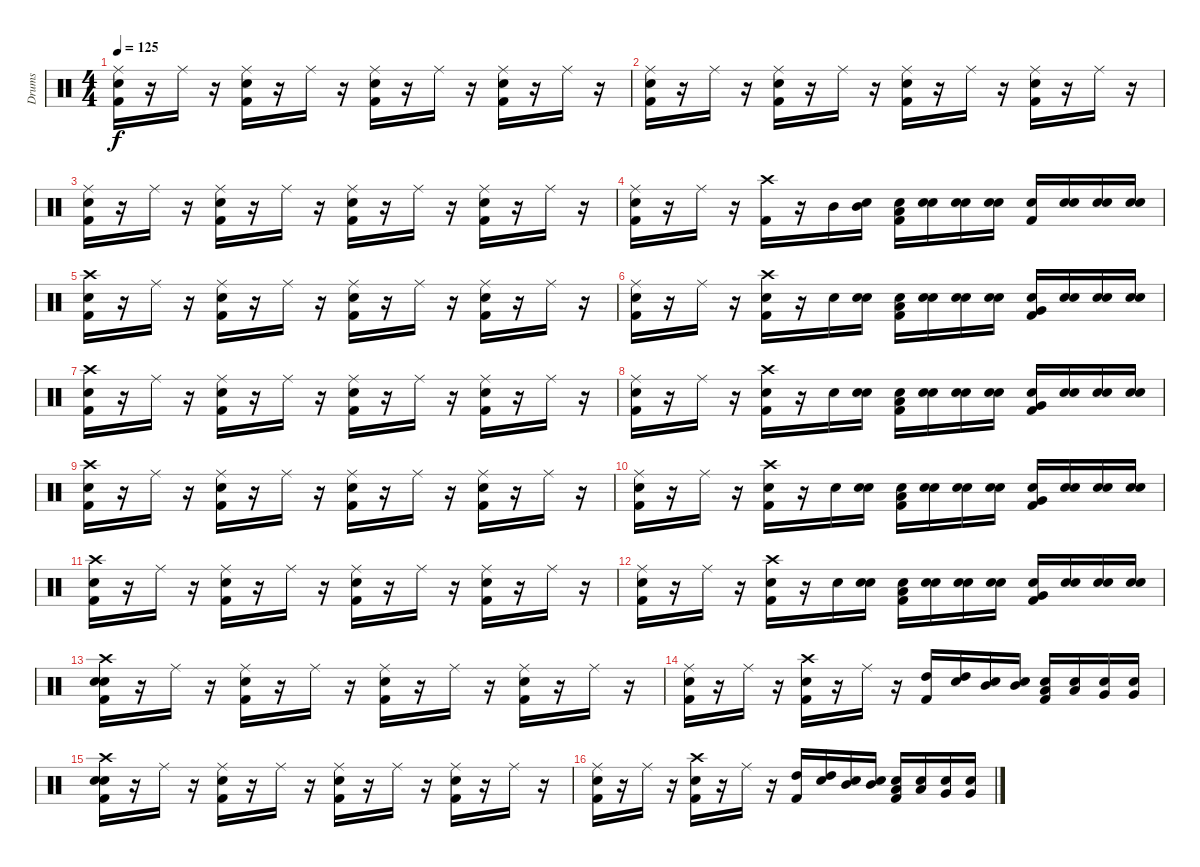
\track ("Drums" "Drums") {instrument percussion}
\staff {score}
\articulation defaults
\ts (4 4)
\tempo 125
\clef neutral
\ks c
("Ride (middle)" "Snare (hit) 2" "Kick (hit) 2").16{dy f} r.16 "Ride (middle)".16 r.16 ("Ride (middle)" "Snare (hit) 2" "Kick (hit) 2").16 r.16 "Ride (middle)".16 r.16 ("Ride (middle)" "Snare (hit) 2" "Kick (hit) 2").16 r.16 "Ride (middle)".16 r.16 ("Ride (middle)" "Snare (hit) 2" "Kick (hit) 2").16 r.16 "Ride (middle)".16 r.16 |
("Ride (middle)" "Snare (hit) 2" "Kick (hit) 2").16 r.16 "Ride (middle)".16 r.16 ("Ride (middle)" "Snare (hit) 2" "Kick (hit) 2").16 r.16 "Ride (middle)".16 r.16 ("Ride (middle)" "Snare (hit) 2" "Kick (hit) 2").16 r.16 "Ride (middle)".16 r.16 ("Ride (middle)" "Snare (hit) 2" "Kick (hit) 2").16 r.16 "Ride (middle)".16 r.16 |
("Ride (middle)" "Snare (hit) 2" "Kick (hit) 2").16 r.16 "Ride (middle)".16 r.16 ("Ride (middle)" "Snare (hit) 2" "Kick (hit) 2").16 r.16 "Ride (middle)".16 r.16 ("Ride (middle)" "Snare (hit) 2" "Kick (hit) 2").16 r.16 "Ride (middle)".16 r.16 ("Ride (middle)" "Snare (hit) 2" "Kick (hit) 2").16 r.16 "Ride (middle)".16 r.16 |
("Ride (middle)" "Snare (hit) 2" "Kick (hit) 2").16 r.16 "Ride (middle)".16 r.16 ("Kick (hit) 2" "Crash high (hit)").16 r.16 "Mid Tom (hit)".16 ("Snare (hit)" "Mid Tom (hit)").16 ("Snare (hit)" "Kick (hit) 2" "Low Tom (hit)").16 ("Snare (hit)" "Snare (hit) 2").16 ("Snare (hit)" "Snare (hit) 2").16 ("Snare (hit)" "Snare (hit) 2").16 ("Snare (hit)" "Kick (hit) 2").16 ("Snare (hit)" "Snare (hit) 2").16 ("Snare (hit)" "Snare (hit) 2").16 ("Snare (hit)" "Snare (hit) 2").16 |
("Snare (hit)" "Kick (hit) 2" "Crash high (hit)").16 r.16 "Ride (middle)".16 r.16 ("Ride (middle)" "Snare (hit) 2" "Kick (hit) 2").16 r.16 "Ride (middle)".16 r.16 ("Ride (middle)" "Snare (hit) 2" "Kick (hit) 2").16 r.16 "Ride (middle)".16 r.16 ("Ride (middle)" "Snare (hit) 2" "Kick (hit) 2").16 r.16 "Ride (middle)".16 r.16 |
("Ride (middle)" "Snare (hit) 2" "Kick (hit) 2").16 r.16 "Ride (middle)".16 r.16 ("Snare (hit) 2" "Kick (hit) 2" "Crash high (hit)").16 r.16 "Snare (hit) 2".16 ("Snare (hit)" "Snare (hit) 2").16 ("Snare (hit)" "Kick (hit) 2" "Low Tom (hit)").16 ("Snare (hit)" "Snare (hit) 2").16 ("Snare (hit)" "Snare (hit) 2").16 ("Snare (hit)" "Snare (hit) 2").16 ("Snare (hit)" "Kick (hit) 2" "Very Low Tom (hit)").16 ("Snare (hit)" "Snare (hit) 2").16 ("Snare (hit)" "Snare (hit) 2").16 ("Snare (hit)" "Snare (hit) 2").16 |
("Snare (hit)" "Kick (hit) 2" "Crash high (hit)").16 r.16 "Ride (middle)".16 r.16 ("Ride (middle)" "Snare (hit) 2" "Kick (hit) 2").16 r.16 "Ride (middle)".16 r.16 ("Ride (middle)" "Snare (hit) 2" "Kick (hit) 2").16 r.16 "Ride (middle)".16 r.16 ("Ride (middle)" "Snare (hit) 2" "Kick (hit) 2").16 r.16 "Ride (middle)".16 r.16 |
("Ride (middle)" "Snare (hit) 2" "Kick (hit) 2").16 r.16 "Ride (middle)".16 r.16 ("Snare (hit) 2" "Kick (hit) 2" "Crash high (hit)").16 r.16 "Snare (hit) 2".16 ("Snare (hit)" "Snare (hit) 2").16 ("Snare (hit)" "Kick (hit) 2" "Low Tom (hit)").16 ("Snare (hit)" "Snare (hit) 2").16 ("Snare (hit)" "Snare (hit) 2").16 ("Snare (hit)" "Snare (hit) 2").16 ("Snare (hit)" "Kick (hit) 2" "Very Low Tom (hit)").16 ("Snare (hit)" "Snare (hit) 2").16 ("Snare (hit)" "Snare (hit) 2").16 ("Snare (hit)" "Snare (hit) 2").16 |
("Snare (hit)" "Kick (hit) 2" "Crash high (hit)").16 r.16 "Ride (middle)".16 r.16 ("Ride (middle)" "Snare (hit) 2" "Kick (hit) 2").16 r.16 "Ride (middle)".16 r.16 ("Ride (middle)" "Snare (hit) 2" "Kick (hit) 2").16 r.16 "Ride (middle)".16 r.16 ("Ride (middle)" "Snare (hit) 2" "Kick (hit) 2").16 r.16 "Ride (middle)".16 r.16 |
("Kick (hit) 2" "Ride (middle)" "Snare (hit) 2").16 r.16 "Ride (middle)".16 r.16 ("Snare (hit) 2" "Kick (hit) 2" "Crash high (hit)").16 r.16 "Snare (hit) 2".16 ("Snare (hit)" "Snare (hit) 2").16 ("Snare (hit)" "Kick (hit) 2" "Low Tom (hit)").16 ("Snare (hit)" "Snare (hit) 2").16 ("Snare (hit)" "Snare (hit) 2").16 ("Snare (hit)" "Snare (hit) 2").16 ("Snare (hit)" "Kick (hit) 2" "Very Low Tom (hit)").16 ("Snare (hit)" "Snare (hit) 2").16 ("Snare (hit)" "Snare (hit) 2").16 ("Snare (hit)" "Snare (hit) 2").16 |
("Snare (hit)" "Kick (hit) 2" "Crash high (hit)").16 r.16 "Ride (middle)".16 r.16 ("Ride (middle)" "Snare (hit) 2" "Kick (hit) 2").16 r.16 "Ride (middle)".16 r.16 ("Ride (middle)" "Snare (hit) 2" "Kick (hit) 2").16 r.16 "Ride (middle)".16 r.16 ("Ride (middle)" "Snare (hit) 2" "Kick (hit) 2").16 r.16 "Ride (middle)".16 r.16 |
("Ride (middle)" "Snare (hit) 2" "Kick (hit) 2").16 r.16 "Ride (middle)".16 r.16 ("Snare (hit) 2" "Kick (hit) 2" "Crash high (hit)").16 r.16 "Snare (hit) 2".16 ("Snare (hit)" "Snare (hit) 2").16 ("Snare (hit)" "Kick (hit) 2" "Low Tom (hit)").16 ("Snare (hit)" "Snare (hit) 2").16 ("Snare (hit)" "Snare (hit) 2").16 ("Snare (hit)" "Snare (hit) 2").16 ("Snare (hit)" "Kick (hit) 2" "Very Low Tom (hit)").16 ("Snare (hit)" "Snare (hit) 2").16 ("Snare (hit)" "Snare (hit) 2").16 ("Snare (hit)" "Snare (hit) 2").16 |
("Snare (hit)" "Snare (hit) 2" "Kick (hit) 2" "Crash high (hit)").16 r.16 "Ride (middle)".16 r.16 ("Ride (middle)" "Snare (hit) 2" "Kick (hit) 2").16 r.16 "Ride (middle)".16 r.16 ("Ride (middle)" "Snare (hit) 2" "Kick (hit) 2").16 r.16 "Ride (middle)".16 r.16 ("Ride (middle)" "Snare (hit) 2" "Kick (hit) 2").16 r.16 "Ride (middle)".16 r.16 |
("Ride (middle)" "Snare (hit) 2" "Kick (hit) 2").16 r.16 "Ride (middle)".16 r.16 ("Snare (hit) 2" "Kick (hit) 2" "Crash high (hit)").16 r.16 "Ride (middle)".16 r.16 ("Kick (hit) 2" "High Tom (hit)").16 ("Snare (hit)" "High Tom (hit)").16 ("Snare (hit)" "Mid Tom (hit)").16 ("Snare (hit)" "Mid Tom (hit)").16 ("Snare (hit)" "Kick (hit) 2" "Low Tom (hit)").16 ("Snare (hit)" "Low Tom (hit)").16 ("Snare (hit)" "Very Low Tom (hit)").16 ("Snare (hit)" "Very Low Tom (hit)").16 |
("Snare (hit)" "Snare (hit) 2" "Kick (hit) 2" "Crash high (hit)").16 r.16 "Ride (middle)".16 r.16 ("Ride (middle)" "Snare (hit) 2" "Kick (hit) 2").16 r.16 "Ride (middle)".16 r.16 ("Ride (middle)" "Snare (hit) 2" "Kick (hit) 2").16 r.16 "Ride (middle)".16 r.16 ("Ride (middle)" "Snare (hit) 2" "Kick (hit) 2").16 r.16 "Ride (middle)".16 r.16 |
("Ride (middle)" "Snare (hit) 2" "Kick (hit) 2").16 r.16 "Ride (middle)".16 r.16 ("Snare (hit) 2" "Kick (hit) 2" "Crash high (hit)").16 r.16 "Ride (middle)".16 r.16 ("Kick (hit) 2" "High Tom (hit)").16 ("Snare (hit)" "High Tom (hit)").16 ("Snare (hit)" "Mid Tom (hit)").16 ("Snare (hit)" "Mid Tom (hit)").16 ("Snare (hit)" "Kick (hit) 2" "Low Tom (hit)").16 ("Snare (hit)" "Low Tom (hit)").16 ("Snare (hit)" "Very Low Tom (hit)").16 ("Snare (hit)" "Very Low Tom (hit)").16
